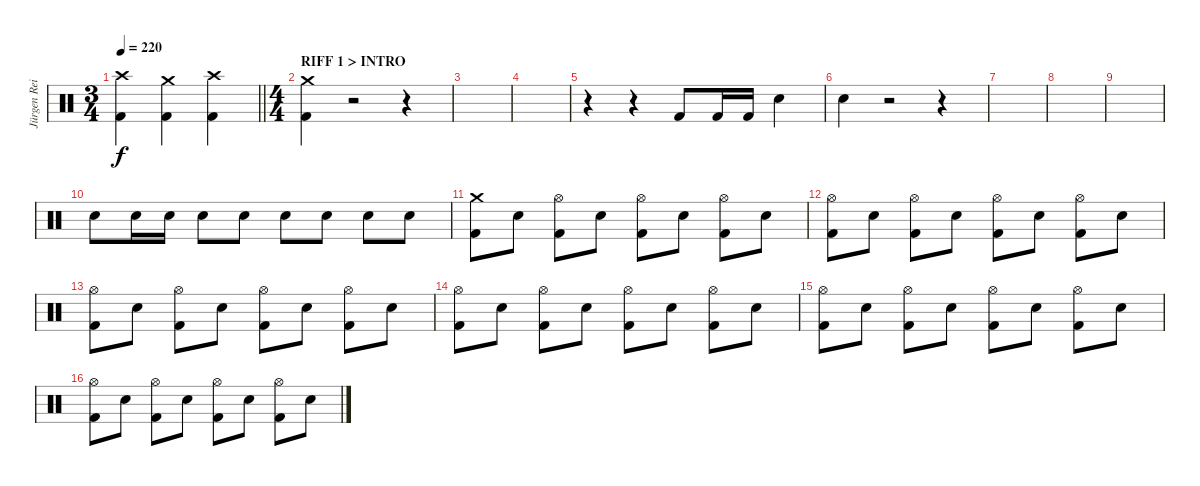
\track ("Jürgen Reil" "Jürgen Rei") {instrument percussion}
\staff {score}
\articulation defaults
\ts (3 4)
\tempo 220
\clef neutral
\barLineRight lightlight
\ks c
("Crash high (hit)" "Kick (hit) 2").4{dy f} ("Crash medium (hit)" "Kick (hit) 2").4 ("Crash high (hit)" "Kick (hit) 2").4 |
\ts (4 4)
\section ("" "RIFF 1 > INTRO")
("Crash medium (hit)" "Kick (hit) 2").4 r.2 r.4 |
|
|
r.4 r.4 "Kick (hit) 2".8 "Kick (hit) 2".16 "Kick (hit) 2".16 "Electric Snare (hit)".4 |
"Electric Snare (hit)".4 r.2 r.4 |
|
|
|
"Electric Snare (hit)".8 "Electric Snare (hit)".16 "Electric Snare (hit)".16 "Electric Snare (hit)".8 "Electric Snare (hit)".8 "Electric Snare (hit)".8 "Electric Snare (hit)".8 "Electric Snare (hit)".8 "Electric Snare (hit)".8 |
("Crash medium (hit)" "Kick (hit) 2").8 "Electric Snare (hit)".8 ("Hi-Hat (open)" "Kick (hit) 2").8 "Electric Snare (hit)".8 ("Hi-Hat (open)" "Kick (hit) 2").8 "Electric Snare (hit)".8 ("Hi-Hat (open)" "Kick (hit) 2").8 "Electric Snare (hit)".8 |
("Hi-Hat (open)" "Kick (hit) 2").8 "Electric Snare (hit)".8 ("Hi-Hat (open)" "Kick (hit) 2").8 "Electric Snare (hit)".8 ("Hi-Hat (open)" "Kick (hit) 2").8 "Electric Snare (hit)".8 ("Hi-Hat (open)" "Kick (hit) 2").8 "Electric Snare (hit)".8 |
("Hi-Hat (open)" "Kick (hit) 2").8 "Electric Snare (hit)".8 ("Hi-Hat (open)" "Kick (hit) 2").8 "Electric Snare (hit)".8 ("Hi-Hat (open)" "Kick (hit) 2").8 "Electric Snare (hit)".8 ("Hi-Hat (open)" "Kick (hit) 2").8 "Electric Snare (hit)".8 |
("Hi-Hat (open)" "Kick (hit) 2").8 "Electric Snare (hit)".8 ("Hi-Hat (open)" "Kick (hit) 2").8 "Electric Snare (hit)".8 ("Hi-Hat (open)" "Kick (hit) 2").8 "Electric Snare (hit)".8 ("Hi-Hat (open)" "Kick (hit) 2").8 "Electric Snare (hit)".8 |
("Hi-Hat (open)" "Kick (hit) 2").8 "Electric Snare (hit)".8 ("Hi-Hat (open)" "Kick (hit) 2").8 "Electric Snare (hit)".8 ("Hi-Hat (open)" "Kick (hit) 2").8 "Electric Snare (hit)".8 ("Hi-Hat (open)" "Kick (hit) 2").8 "Electric Snare (hit)".8 |
("Hi-Hat (open)" "Kick (hit) 2").8 "Electric Snare (hit)".8 ("Hi-Hat (open)" "Kick (hit) 2").8 "Electric Snare (hit)".8 ("Hi-Hat (open)" "Kick (hit) 2").8 "Electric Snare (hit)".8 ("Hi-Hat (open)" "Kick (hit) 2").8 "Electric Snare (hit)".8
